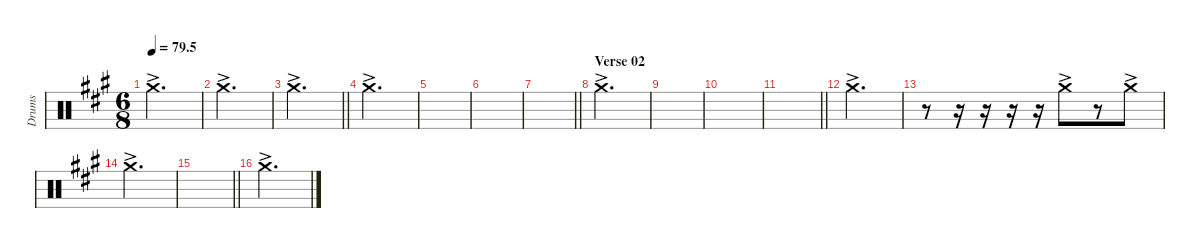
\defaultSystemsLayout 4
\hideDynamics
\bracketExtendMode nobrackets
\otherSystemsTrackNameOrientation horizontal
\track ("Right crash" "Drums") {instrument percussion}
\staff {score}
\articulation defaults
\ts (6 8)
\tempo
79.5
\accidentals auto
\clef neutral
\ottava regular
\simile none
\scale
0.333333
\ks a "Crash medium (hit)"{ac acc forcenatural}.2{d dy f}
|
\scale
0.333333 "Crash medium (hit)"{ac acc forcenatural}.2{d} |
\scale
0.333333
\barLineRight lightlight "Crash medium (hit)"{ac acc forcenatural}.2{d}
|
\scale
0.333333 "Crash medium (hit)"{ac acc forcenatural}.2{d} |
\scale
0.333333 |
\scale
0.333333 |
\scale
0.333333
\barLineRight lightlight
|
\section ("" "Verse 02")
\scale
0.333333 "Crash medium (hit)"{ac acc forcenatural}.2{d} |
\scale
0.333333 |
\scale
0.333333 |
\scale
0.333333
\barLineRight lightlight
|
\scale
0.333333 "Crash medium (hit)"{ac acc forcenatural}.2{d} |
\scale
0.333333 r.8 r.16 r.16 r.16 r.16 "Crash medium (hit)"{ac acc forcenatural}.8 r.8 "Crash medium (hit)"{ac acc forcenatural}.8 |
\scale
0.333333 "Crash medium (hit)"{ac acc forcenatural}.2{d} |
\scale
0.333333
\barLineRight lightlight
|
\scale
0.333333 "Crash medium (hit)"{ac acc forcenatural}.2{d}
